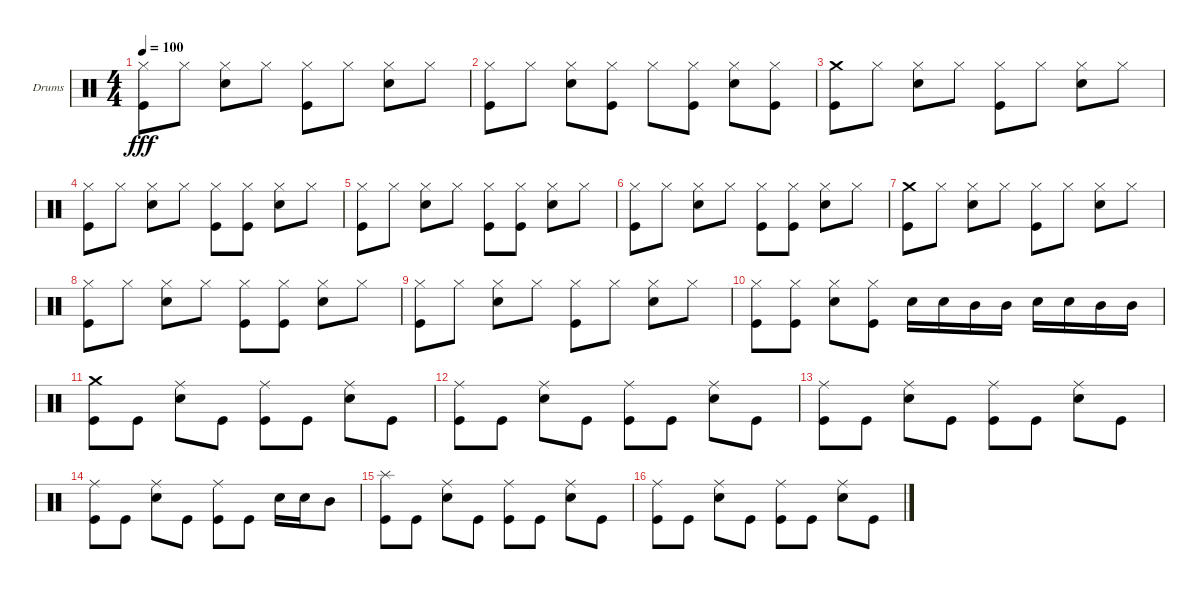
\defaultSystemsLayout 4
\bracketExtendMode groupsimilarinstruments
\firstSystemTrackNameOrientation horizontal
\otherSystemsTrackNameOrientation horizontal
\track ("Барабаны" "Drums") {instrument percussion}
\staff {score}
\articulation defaults
\ts (4 4)
\tempo 100
\clef neutral
\ks c
("Kick (hit)" "Hi-Hat (closed)").8{dy fff} "Hi-Hat (closed)".8 ("Hi-Hat (closed)" "Snare (hit) 2").8 "Hi-Hat (closed)".8 ("Hi-Hat (closed)" "Kick (hit)").8 "Hi-Hat (closed)".8 ("Hi-Hat (closed)" "Snare (hit) 2").8 "Hi-Hat (closed)".8 |
("Kick (hit)" "Hi-Hat (closed)").8 "Hi-Hat (closed)".8 ("Hi-Hat (closed)" "Snare (hit) 2").8 ("Hi-Hat (closed)" "Kick (hit)").8 "Hi-Hat (closed)".8 ("Hi-Hat (closed)" "Kick (hit)").8 ("Hi-Hat (closed)" "Snare (hit) 2").8 ("Hi-Hat (closed)" "Kick (hit)").8 |
("Crash medium (hit)" "Kick (hit)").8 "Hi-Hat (closed)".8 ("Hi-Hat (closed)" "Snare (hit) 2").8 "Hi-Hat (closed)".8 ("Hi-Hat (closed)" "Kick (hit)").8 "Hi-Hat (closed)".8 ("Hi-Hat (closed)" "Snare (hit) 2").8 "Hi-Hat (closed)".8 |
("Kick (hit)" "Hi-Hat (closed)").8 "Hi-Hat (closed)".8 ("Hi-Hat (closed)" "Snare (hit) 2").8 "Hi-Hat (closed)".8 ("Hi-Hat (closed)" "Kick (hit)").8 ("Hi-Hat (closed)" "Kick (hit)").8 ("Hi-Hat (closed)" "Snare (hit) 2").8 "Hi-Hat (closed)".8 |
("Kick (hit)" "Hi-Hat (closed)").8 "Hi-Hat (closed)".8 ("Hi-Hat (closed)" "Snare (hit) 2").8 "Hi-Hat (closed)".8 ("Hi-Hat (closed)" "Kick (hit)").8 ("Hi-Hat (closed)" "Kick (hit)").8 ("Hi-Hat (closed)" "Snare (hit) 2").8 "Hi-Hat (closed)".8 |
("Kick (hit)" "Hi-Hat (closed)").8 "Hi-Hat (closed)".8 ("Hi-Hat (closed)" "Snare (hit) 2").8 "Hi-Hat (closed)".8 ("Hi-Hat (closed)" "Kick (hit)").8 ("Hi-Hat (closed)" "Kick (hit)").8 ("Hi-Hat (closed)" "Snare (hit) 2").8 "Hi-Hat (closed)".8 |
("Crash medium (hit)" "Kick (hit)").8 "Hi-Hat (closed)".8 ("Hi-Hat (closed)" "Snare (hit) 2").8 "Hi-Hat (closed)".8 ("Hi-Hat (closed)" "Kick (hit)").8 "Hi-Hat (closed)".8 ("Hi-Hat (closed)" "Snare (hit) 2").8 "Hi-Hat (closed)".8 |
("Kick (hit)" "Hi-Hat (closed)").8 "Hi-Hat (closed)".8 ("Hi-Hat (closed)" "Snare (hit) 2").8 "Hi-Hat (closed)".8 ("Hi-Hat (closed)" "Kick (hit)").8 ("Hi-Hat (closed)" "Kick (hit)").8 ("Hi-Hat (closed)" "Snare (hit) 2").8 "Hi-Hat (closed)".8 |
("Kick (hit)" "Hi-Hat (closed)").8 "Hi-Hat (closed)".8 ("Hi-Hat (closed)" "Snare (hit) 2").8 "Hi-Hat (closed)".8 ("Hi-Hat (closed)" "Kick (hit)").8 "Hi-Hat (closed)".8 ("Hi-Hat (closed)" "Snare (hit) 2").8 "Hi-Hat (closed)".8 |
("Kick (hit)" "Hi-Hat (closed)").8 ("Hi-Hat (closed)" "Kick (hit)").8 ("Hi-Hat (closed)" "Snare (hit) 2").8 ("Hi-Hat (closed)" "Kick (hit)").8 "Snare (hit) 2".16 "Snare (hit) 2".16 "Mid Tom (hit)".16 "Mid Tom (hit)".16 "Snare (hit) 2".16 "Snare (hit) 2".16 "Mid Tom (hit)".16 "Mid Tom (hit)".16 |
("Crash medium (hit)" "Kick (hit)").8 "Kick (hit)".8 ("Snare (hit) 2" "Ride (middle)").8 "Kick (hit)".8 ("Kick (hit)" "Ride (middle)").8 "Kick (hit)".8 ("Snare (hit) 2" "Ride (middle)").8 "Kick (hit)".8 |
("Kick (hit)" "Ride (middle)").8 "Kick (hit)".8 ("Snare (hit) 2" "Ride (middle)").8 "Kick (hit)".8 ("Kick (hit)" "Ride (middle)").8 "Kick (hit)".8 ("Snare (hit) 2" "Ride (middle)").8 "Kick (hit)".8 |
("Kick (hit)" "Ride (middle)").8 "Kick (hit)".8 ("Snare (hit) 2" "Ride (middle)").8 "Kick (hit)".8 ("Kick (hit)" "Ride (middle)").8 "Kick (hit)".8 ("Snare (hit) 2" "Ride (middle)").8 "Kick (hit)".8 |
("Kick (hit)" "Ride (middle)").8 "Kick (hit)".8 ("Snare (hit) 2" "Ride (middle)").8 "Kick (hit)".8 ("Kick (hit)" "Ride (middle)").8 "Kick (hit)".8 "Snare (hit) 2".16 "Snare (hit) 2".16 "Mid Tom (hit)".8 |
("Kick (hit)" "Splash (hit)").8 "Kick (hit)".8 ("Snare (hit) 2" "Ride (middle)").8 "Kick (hit)".8 ("Kick (hit)" "Ride (middle)").8 "Kick (hit)".8 ("Snare (hit) 2" "Ride (middle)").8 "Kick (hit)".8 |
("Kick (hit)" "Ride (middle)").8 "Kick (hit)".8 ("Snare (hit) 2" "Ride (middle)").8 "Kick (hit)".8 ("Kick (hit)" "Ride (middle)").8 "Kick (hit)".8 ("Snare (hit) 2" "Ride (middle)").8 "Kick (hit)".8
